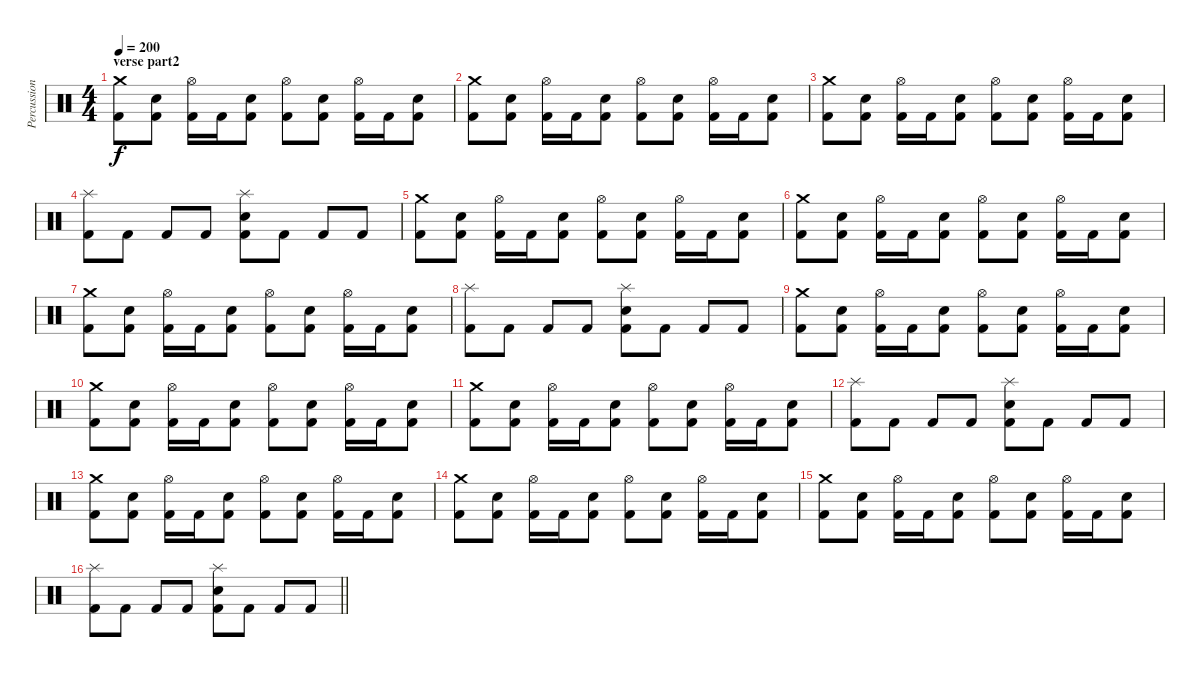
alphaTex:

\track ("Percussion" "Percussion") {instrument percussion}
\staff {score}
\articulation defaults
\ts (4 4)
\section ("" "verse part2")
\tempo 200
\clef neutral
\ks c
("Crash medium (hit)" "Kick (hit) 2").8{dy f} ("Electric Snare (hit)" "Kick (hit) 2").8 ("Hi-Hat (open)" "Kick (hit) 2").16 "Kick (hit) 2".16 ("Electric Snare (hit)" "Kick (hit) 2").8 ("Hi-Hat (open)" "Kick (hit) 2").8 ("Electric Snare (hit)" "Kick (hit) 2").8 ("Hi-Hat (open)" "Kick (hit) 2").16 "Kick (hit) 2".16 ("Electric Snare (hit)" "Kick (hit) 2").8 |
("Crash medium (hit)" "Kick (hit) 2").8 ("Electric Snare (hit)" "Kick (hit) 2").8 ("Hi-Hat (open)" "Kick (hit) 2").16 "Kick (hit) 2".16 ("Electric Snare (hit)" "Kick (hit) 2").8 ("Hi-Hat (open)" "Kick (hit) 2").8 ("Electric Snare (hit)" "Kick (hit) 2").8 ("Hi-Hat (open)" "Kick (hit) 2").16 "Kick (hit) 2".16 ("Electric Snare (hit)" "Kick (hit) 2").8 |
("Crash medium (hit)" "Kick (hit) 2").8 ("Electric Snare (hit)" "Kick (hit) 2").8 ("Hi-Hat (open)" "Kick (hit) 2").16 "Kick (hit) 2".16 ("Electric Snare (hit)" "Kick (hit) 2").8 ("Hi-Hat (open)" "Kick (hit) 2").8 ("Electric Snare (hit)" "Kick (hit) 2").8 ("Hi-Hat (open)" "Kick (hit) 2").16 "Kick (hit) 2".16 ("Electric Snare (hit)" "Kick (hit) 2").8 |
("Splash (hit)" "Kick (hit) 2").8 "Kick (hit) 2".8 "Kick (hit) 2".8 "Kick (hit) 2".8 ("Splash (hit)" "Electric Snare (hit)" "Kick (hit) 2").8 "Kick (hit) 2".8 "Kick (hit) 2".8 "Kick (hit) 2".8 |
("Crash medium (hit)" "Kick (hit) 2").8 ("Electric Snare (hit)" "Kick (hit) 2").8 ("Hi-Hat (open)" "Kick (hit) 2").16 "Kick (hit) 2".16 ("Electric Snare (hit)" "Kick (hit) 2").8 ("Hi-Hat (open)" "Kick (hit) 2").8 ("Electric Snare (hit)" "Kick (hit) 2").8 ("Hi-Hat (open)" "Kick (hit) 2").16 "Kick (hit) 2".16 ("Electric Snare (hit)" "Kick (hit) 2").8 |
("Crash medium (hit)" "Kick (hit) 2").8 ("Electric Snare (hit)" "Kick (hit) 2").8 ("Hi-Hat (open)" "Kick (hit) 2").16 "Kick (hit) 2".16 ("Electric Snare (hit)" "Kick (hit) 2").8 ("Hi-Hat (open)" "Kick (hit) 2").8 ("Electric Snare (hit)" "Kick (hit) 2").8 ("Hi-Hat (open)" "Kick (hit) 2").16 "Kick (hit) 2".16 ("Electric Snare (hit)" "Kick (hit) 2").8 |
("Crash medium (hit)" "Kick (hit) 2").8 ("Electric Snare (hit)" "Kick (hit) 2").8 ("Hi-Hat (open)" "Kick (hit) 2").16 "Kick (hit) 2".16 ("Electric Snare (hit)" "Kick (hit) 2").8 ("Hi-Hat (open)" "Kick (hit) 2").8 ("Electric Snare (hit)" "Kick (hit) 2").8 ("Hi-Hat (open)" "Kick (hit) 2").16 "Kick (hit) 2".16 ("Electric Snare (hit)" "Kick (hit) 2").8 |
("Splash (hit)" "Kick (hit) 2").8 "Kick (hit) 2".8 "Kick (hit) 2".8 "Kick (hit) 2".8 ("Splash (hit)" "Electric Snare (hit)" "Kick (hit) 2").8 "Kick (hit) 2".8 "Kick (hit) 2".8 "Kick (hit) 2".8 |
("Crash medium (hit)" "Kick (hit) 2").8 ("Electric Snare (hit)" "Kick (hit) 2").8 ("Hi-Hat (open)" "Kick (hit) 2").16 "Kick (hit) 2".16 ("Electric Snare (hit)" "Kick (hit) 2").8 ("Hi-Hat (open)" "Kick (hit) 2").8 ("Electric Snare (hit)" "Kick (hit) 2").8 ("Hi-Hat (open)" "Kick (hit) 2").16 "Kick (hit) 2".16 ("Electric Snare (hit)" "Kick (hit) 2").8 |
("Crash medium (hit)" "Kick (hit) 2").8 ("Electric Snare (hit)" "Kick (hit) 2").8 ("Hi-Hat (open)" "Kick (hit) 2").16 "Kick (hit) 2".16 ("Electric Snare (hit)" "Kick (hit) 2").8 ("Hi-Hat (open)" "Kick (hit) 2").8 ("Electric Snare (hit)" "Kick (hit) 2").8 ("Hi-Hat (open)" "Kick (hit) 2").16 "Kick (hit) 2".16 ("Electric Snare (hit)" "Kick (hit) 2").8 |
("Crash medium (hit)" "Kick (hit) 2").8 ("Electric Snare (hit)" "Kick (hit) 2").8 ("Hi-Hat (open)" "Kick (hit) 2").16 "Kick (hit) 2".16 ("Electric Snare (hit)" "Kick (hit) 2").8 ("Hi-Hat (open)" "Kick (hit) 2").8 ("Electric Snare (hit)" "Kick (hit) 2").8 ("Hi-Hat (open)" "Kick (hit) 2").16 "Kick (hit) 2".16 ("Electric Snare (hit)" "Kick (hit) 2").8 |
("Splash (hit)" "Kick (hit) 2").8 "Kick (hit) 2".8 "Kick (hit) 2".8 "Kick (hit) 2".8 ("Splash (hit)" "Electric Snare (hit)" "Kick (hit) 2").8 "Kick (hit) 2".8 "Kick (hit) 2".8 "Kick (hit) 2".8 |
("Crash medium (hit)" "Kick (hit) 2").8 ("Electric Snare (hit)" "Kick (hit) 2").8 ("Hi-Hat (open)" "Kick (hit) 2").16 "Kick (hit) 2".16 ("Electric Snare (hit)" "Kick (hit) 2").8 ("Hi-Hat (open)" "Kick (hit) 2").8 ("Electric Snare (hit)" "Kick (hit) 2").8 ("Hi-Hat (open)" "Kick (hit) 2").16 "Kick (hit) 2".16 ("Electric Snare (hit)" "Kick (hit) 2").8 |
("Crash medium (hit)" "Kick (hit) 2").8 ("Electric Snare (hit)" "Kick (hit) 2").8 ("Hi-Hat (open)" "Kick (hit) 2").16 "Kick (hit) 2".16 ("Electric Snare (hit)" "Kick (hit) 2").8 ("Hi-Hat (open)" "Kick (hit) 2").8 ("Electric Snare (hit)" "Kick (hit) 2").8 ("Hi-Hat (open)" "Kick (hit) 2").16 "Kick (hit) 2".16 ("Electric Snare (hit)" "Kick (hit) 2").8 |
("Crash medium (hit)" "Kick (hit) 2").8 ("Electric Snare (hit)" "Kick (hit) 2").8 ("Hi-Hat (open)" "Kick (hit) 2").16 "Kick (hit) 2".16 ("Electric Snare (hit)" "Kick (hit) 2").8 ("Hi-Hat (open)" "Kick (hit) 2").8 ("Electric Snare (hit)" "Kick (hit) 2").8 ("Hi-Hat (open)" "Kick (hit) 2").16 "Kick (hit) 2".16 ("Electric Snare (hit)" "Kick (hit) 2").8 |
\barLineRight lightlight
("Splash (hit)" "Kick (hit) 2").8 "Kick (hit) 2".8 "Kick (hit) 2".8 "Kick (hit) 2".8 ("Splash (hit)" "Electric Snare (hit)" "Kick (hit) 2").8 "Kick (hit) 2".8 "Kick (hit) 2".8 "Kick (hit) 2".8
